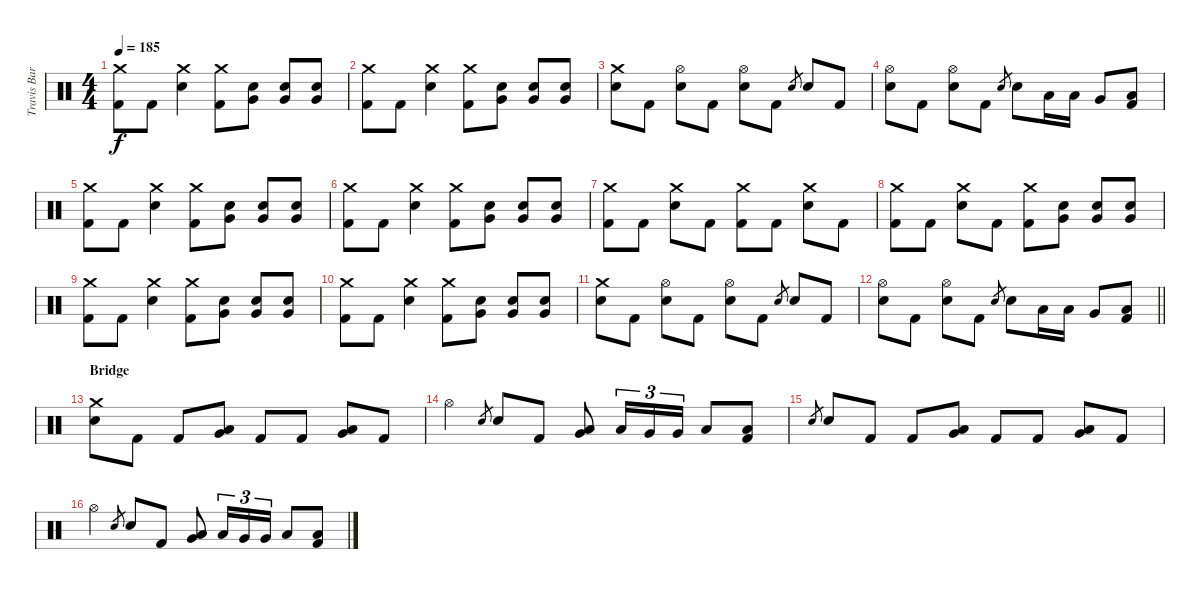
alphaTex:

\track ("Travis Barker - Drums" "Travis Bar") {instrument percussion}
\staff {score}
\articulation defaults
\ts (4 4)
\tempo 185
\clef neutral
\ks c
("Crash medium (hit)" "Kick (hit) 2").8{dy f} "Kick (hit) 2".8 ("Crash medium (hit)" "Electric Snare (hit)").4 ("Crash medium (hit)" "Kick (hit) 2").8 ("Very Low Tom (hit)" "Electric Snare (hit)").8 ("Very Low Tom (hit)" "Electric Snare (hit)").8 ("Very Low Tom (hit)" "Electric Snare (hit)").8 |
("Crash medium (hit)" "Kick (hit) 2").8 "Kick (hit) 2".8 ("Crash medium (hit)" "Electric Snare (hit)").4 ("Crash medium (hit)" "Kick (hit) 2").8 ("Very Low Tom (hit)" "Electric Snare (hit)").8 ("Very Low Tom (hit)" "Electric Snare (hit)").8 ("Very Low Tom (hit)" "Electric Snare (hit)").8 |
("Crash medium (hit)" "Electric Snare (hit)").8 "Kick (hit) 2".8 ("Hi-Hat (open)" "Electric Snare (hit)").8 "Kick (hit) 2".8 ("Hi-Hat (open)" "Electric Snare (hit)").8 "Kick (hit) 2".8 "Electric Snare (hit)".8{gr} "Electric Snare (hit)".8 "Kick (hit) 2".8 |
("Hi-Hat (open)" "Electric Snare (hit)").8 "Kick (hit) 2".8 ("Hi-Hat (open)" "Electric Snare (hit)").8 "Kick (hit) 2".8 "Electric Snare (hit)".8{gr} "Electric Snare (hit)".8 "Low Tom (hit)".16 "Low Tom (hit)".16 "Very Low Tom (hit)".8 ("Low Floor Tom (hit)" "Kick (hit) 2").8 |
("Crash medium (hit)" "Kick (hit) 2").8 "Kick (hit) 2".8 ("Crash medium (hit)" "Electric Snare (hit)").4 ("Crash medium (hit)" "Kick (hit) 2").8 ("Very Low Tom (hit)" "Electric Snare (hit)").8 ("Very Low Tom (hit)" "Electric Snare (hit)").8 ("Very Low Tom (hit)" "Electric Snare (hit)").8 |
("Crash medium (hit)" "Kick (hit) 2").8 "Kick (hit) 2".8 ("Crash medium (hit)" "Electric Snare (hit)").4 ("Crash medium (hit)" "Kick (hit) 2").8 ("Very Low Tom (hit)" "Electric Snare (hit)").8 ("Very Low Tom (hit)" "Electric Snare (hit)").8 ("Very Low Tom (hit)" "Electric Snare (hit)").8 |
("Crash medium (hit)" "Kick (hit) 2").8 "Kick (hit) 2".8 ("Crash medium (hit)" "Electric Snare (hit)").8 "Kick (hit) 2".8 ("Crash medium (hit)" "Kick (hit) 2").8 "Kick (hit) 2".8 ("Crash medium (hit)" "Electric Snare (hit)").8 "Kick (hit) 2".8 |
("Crash medium (hit)" "Kick (hit) 2").8 "Kick (hit) 2".8 ("Crash medium (hit)" "Electric Snare (hit)").8 "Kick (hit) 2".8 ("Crash medium (hit)" "Kick (hit) 2").8 ("Very Low Tom (hit)" "Electric Snare (hit)").8 ("Very Low Tom (hit)" "Electric Snare (hit)").8 ("Very Low Tom (hit)" "Electric Snare (hit)").8 |
("Crash medium (hit)" "Kick (hit) 2").8 "Kick (hit) 2".8 ("Crash medium (hit)" "Electric Snare (hit)").4 ("Crash medium (hit)" "Kick (hit) 2").8 ("Very Low Tom (hit)" "Electric Snare (hit)").8 ("Very Low Tom (hit)" "Electric Snare (hit)").8 ("Very Low Tom (hit)" "Electric Snare (hit)").8 |
("Crash medium (hit)" "Kick (hit) 2").8 "Kick (hit) 2".8 ("Crash medium (hit)" "Electric Snare (hit)").4 ("Crash medium (hit)" "Kick (hit) 2").8 ("Very Low Tom (hit)" "Electric Snare (hit)").8 ("Very Low Tom (hit)" "Electric Snare (hit)").8 ("Very Low Tom (hit)" "Electric Snare (hit)").8 |
("Crash medium (hit)" "Electric Snare (hit)").8 "Kick (hit) 2".8 ("Hi-Hat (open)" "Electric Snare (hit)").8 "Kick (hit) 2".8 ("Hi-Hat (open)" "Electric Snare (hit)").8 "Kick (hit) 2".8 "Electric Snare (hit)".8{gr} "Electric Snare (hit)".8 "Kick (hit) 2".8 |
\barLineRight lightlight
("Hi-Hat (open)" "Electric Snare (hit)").8 "Kick (hit) 2".8 ("Hi-Hat (open)" "Electric Snare (hit)").8 "Kick (hit) 2".8 "Electric Snare (hit)".8{gr} "Electric Snare (hit)".8 "Low Tom (hit)".16 "Low Tom (hit)".16 "Very Low Tom (hit)".8 ("Low Floor Tom (hit)" "Kick (hit) 2").8 |
\section ("" "Bridge")
("Crash medium (hit)" "Electric Snare (hit)").8 "Kick (hit) 2".8 "Kick (hit) 2".8 ("Low Tom (hit)" "Very Low Tom (hit)").8 "Kick (hit) 2".8 "Kick (hit) 2".8 ("Low Floor Tom (hit)" "Very Low Tom (hit)").8 "Kick (hit) 2".8 |
"Hi-Hat (open)".4 "Electric Snare (hit)".8{gr} "Electric Snare (hit)".8 "Kick (hit) 2".8 ("Low Tom (hit)" "Very Low Tom (hit)").8 "Low Tom (hit)".16{tu (3 2)} "Very Low Tom (hit)".16{tu (3 2)} "Very Low Tom (hit)".16{tu (3 2)} "Low Floor Tom (hit)".8 ("Low Floor Tom (hit)" "Kick (hit) 2").8 |
"Electric Snare (hit)".8{gr} "Electric Snare (hit)".8 "Kick (hit) 2".8 "Kick (hit) 2".8 ("Low Tom (hit)" "Very Low Tom (hit)").8 "Kick (hit) 2".8 "Kick (hit) 2".8 ("Low Floor Tom (hit)" "Very Low Tom (hit)").8 "Kick (hit) 2".8 |
"Hi-Hat (open)".4 "Electric Snare (hit)".8{gr} "Electric Snare (hit)".8 "Kick (hit) 2".8 ("Low Tom (hit)" "Very Low Tom (hit)").8 "Low Tom (hit)".16{tu (3 2)} "Very Low Tom (hit)".16{tu (3 2)} "Very Low Tom (hit)".16{tu (3 2)} "Low Floor Tom (hit)".8 ("Low Floor Tom (hit)" "Kick (hit) 2").8
